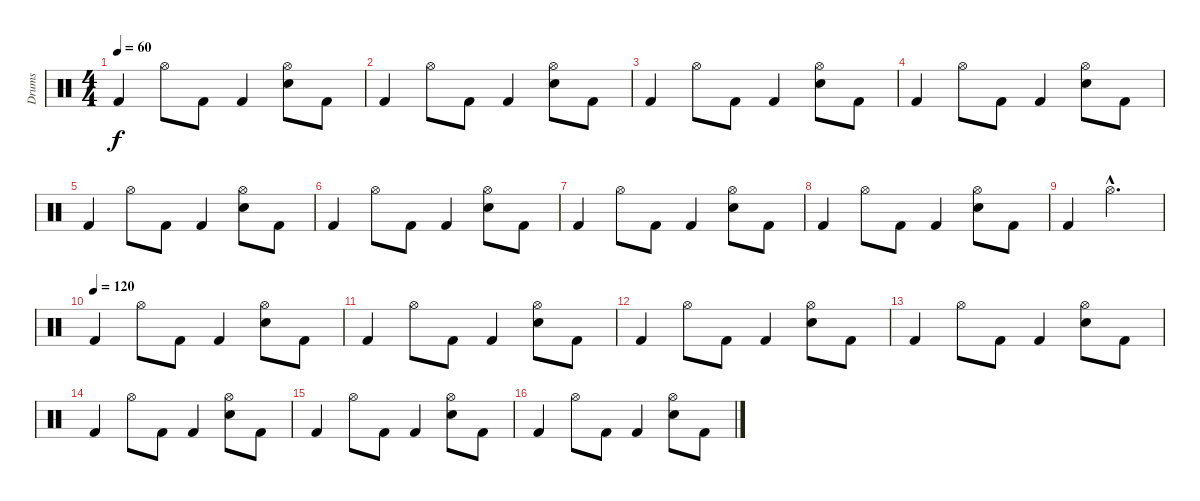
\track ("Drums" "Drums") {instrument percussion}
\staff {score}
\articulation defaults
\ts (4 4)
\tempo 60
\clef neutral
\ks c "Kick (hit) 2".4{dy f} "Hi-Hat (open)".8 "Kick (hit) 2".8 "Kick (hit) 2".4
("Hi-Hat (open)" "Electric Snare (hit)").8 "Kick (hit) 2".8 |
"Kick (hit) 2".4 "Hi-Hat (open)".8 "Kick (hit) 2".8 "Kick (hit) 2".4 ("Hi-Hat (open)" "Electric Snare (hit)").8 "Kick (hit) 2".8 |
"Kick (hit) 2".4 "Hi-Hat (open)".8 "Kick (hit) 2".8 "Kick (hit) 2".4 ("Hi-Hat (open)" "Electric Snare (hit)").8 "Kick (hit) 2".8 |
"Kick (hit) 2".4 "Hi-Hat (open)".8 "Kick (hit) 2".8 "Kick (hit) 2".4 ("Hi-Hat (open)" "Electric Snare (hit)").8 "Kick (hit) 2".8 |
"Kick (hit) 2".4 "Hi-Hat (open)".8 "Kick (hit) 2".8 "Kick (hit) 2".4 ("Hi-Hat (open)" "Electric Snare (hit)").8 "Kick (hit) 2".8 |
"Kick (hit) 2".4 "Hi-Hat (open)".8 "Kick (hit) 2".8 "Kick (hit) 2".4 ("Hi-Hat (open)" "Electric Snare (hit)").8 "Kick (hit) 2".8 |
"Kick (hit) 2".4 "Hi-Hat (open)".8 "Kick (hit) 2".8 "Kick (hit) 2".4 ("Hi-Hat (open)" "Electric Snare (hit)").8 "Kick (hit) 2".8 |
"Kick (hit) 2".4 "Hi-Hat (open)".8 "Kick (hit) 2".8 "Kick (hit) 2".4 ("Hi-Hat (open)" "Electric Snare (hit)").8 "Kick (hit) 2".8 |
"Kick (hit) 2".4 "Hi-Hat (open)"{hac}.2{d} |
\tempo (120)
"Kick (hit) 2".4 "Hi-Hat (open)".8 "Kick (hit) 2".8 "Kick (hit) 2".4 ("Hi-Hat (open)" "Electric Snare (hit)").8 "Kick (hit) 2".8 |
"Kick (hit) 2".4 "Hi-Hat (open)".8 "Kick (hit) 2".8 "Kick (hit) 2".4 ("Hi-Hat (open)" "Electric Snare (hit)").8 "Kick (hit) 2".8 |
"Kick (hit) 2".4 "Hi-Hat (open)".8 "Kick (hit) 2".8 "Kick (hit) 2".4 ("Hi-Hat (open)" "Electric Snare (hit)").8 "Kick (hit) 2".8 |
"Kick (hit) 2".4 "Hi-Hat (open)".8 "Kick (hit) 2".8 "Kick (hit) 2".4 ("Hi-Hat (open)" "Electric Snare (hit)").8 "Kick (hit) 2".8 |
"Kick (hit) 2".4 "Hi-Hat (open)".8 "Kick (hit) 2".8 "Kick (hit) 2".4 ("Hi-Hat (open)" "Electric Snare (hit)").8 "Kick (hit) 2".8 |
"Kick (hit) 2".4 "Hi-Hat (open)".8 "Kick (hit) 2".8 "Kick (hit) 2".4 ("Hi-Hat (open)" "Electric Snare (hit)").8 "Kick (hit) 2".8 |
"Kick (hit) 2".4 "Hi-Hat (open)".8 "Kick (hit) 2".8 "Kick (hit) 2".4 ("Hi-Hat (open)" "Electric Snare (hit)").8 "Kick (hit) 2".8
